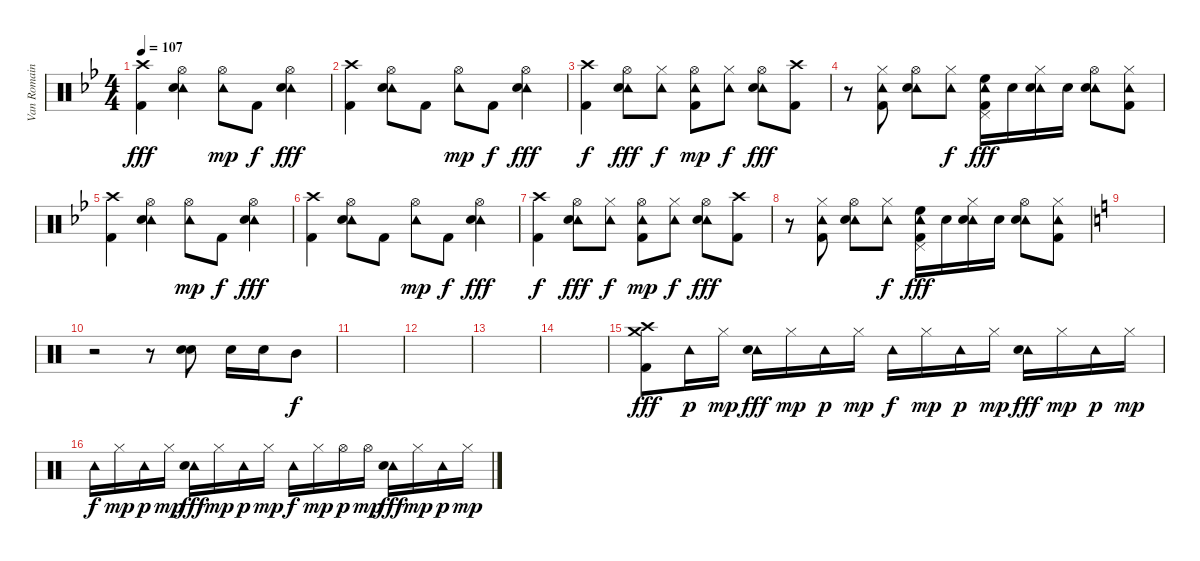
\track ("Van Romaine" "Van Romain") {instrument percussion}
\staff {score}
\articulation defaults
\ts (4 4)
\tempo 107
\clef neutral
\ks bb
("Crash high (hit)" "Kick (hit) 2").4{dy fff} ("Hi-Hat (open)" "Tambourine (hit)" "Electric Snare (hit)").4 ("Hi-Hat (open)" "Tambourine (hit)").8{dy mp} "Kick (hit) 2".8{dy f} ("Hi-Hat (open)" "Tambourine (hit)" "Electric Snare (hit)").4{dy fff} |
("Crash high (hit)" "Kick (hit) 2").4 ("Hi-Hat (open)" "Tambourine (hit)" "Electric Snare (hit)").8 "Kick (hit) 2".8 ("Hi-Hat (open)" "Tambourine (hit)").8{dy mp} "Kick (hit) 2".8{dy f} ("Hi-Hat (open)" "Tambourine (hit)" "Electric Snare (hit)").4{dy fff} |
("Crash high (hit)" "Kick (hit) 2").4{dy f} ("Hi-Hat (open)" "Tambourine (hit)" "Electric Snare (hit)").8{dy fff} ("Hi-Hat (closed)" "Tambourine (hit)").8{dy f} ("Hi-Hat (open)" "Tambourine (hit)" "Kick (hit) 2").8{dy mp} ("Hi-Hat (closed)" "Tambourine (hit)").8{dy f} ("Hi-Hat (open)" "Tambourine (hit)" "Electric Snare (hit)").8{dy fff} ("Crash high (hit)" "Kick (hit) 2").8 |
r.8 ("Hi-Hat (closed)" "Tambourine (hit)" "Kick (hit) 2").8 ("Hi-Hat (open)" "Tambourine (hit)" "Electric Snare (hit)").8 ("Hi-Hat (closed)" "Tambourine (hit)").8{dy f} ("Pedal Hi-Hat (hit)" "Tambourine (hit)" "High Floor Tom (hit)" "Kick (hit) 2").16{dy fff} "Electric Snare (hit)".16 ("Hi-Hat (closed)" "Tambourine (hit)" "Electric Snare (hit)").16 "Electric Snare (hit)".16 ("Hi-Hat (open)" "Tambourine (hit)" "Electric Snare (hit)").8 ("Hi-Hat (closed)" "Tambourine (hit)" "Kick (hit) 2").8 |
("Crash high (hit)" "Kick (hit) 2").4 ("Hi-Hat (open)" "Tambourine (hit)" "Electric Snare (hit)").4 ("Hi-Hat (open)" "Tambourine (hit)").8{dy mp} "Kick (hit) 2".8{dy f} ("Hi-Hat (open)" "Tambourine (hit)" "Electric Snare (hit)").4{dy fff} |
("Crash high (hit)" "Kick (hit) 2").4 ("Hi-Hat (open)" "Tambourine (hit)" "Electric Snare (hit)").8 "Kick (hit) 2".8 ("Hi-Hat (open)" "Tambourine (hit)").8{dy mp} "Kick (hit) 2".8{dy f} ("Hi-Hat (open)" "Tambourine (hit)" "Electric Snare (hit)").4{dy fff} |
("Crash high (hit)" "Kick (hit) 2").4{dy f} ("Hi-Hat (open)" "Tambourine (hit)" "Electric Snare (hit)").8{dy fff} ("Hi-Hat (closed)" "Tambourine (hit)").8{dy f} ("Hi-Hat (open)" "Tambourine (hit)" "Kick (hit) 2").8{dy mp} ("Hi-Hat (closed)" "Tambourine (hit)").8{dy f} ("Hi-Hat (open)" "Tambourine (hit)" "Electric Snare (hit)").8{dy fff} ("Crash high (hit)" "Kick (hit) 2").8 |
r.8 ("Hi-Hat (closed)" "Tambourine (hit)" "Kick (hit) 2").8 ("Hi-Hat (open)" "Tambourine (hit)" "Electric Snare (hit)").8 ("Hi-Hat (closed)" "Tambourine (hit)").8{dy f} ("Pedal Hi-Hat (hit)" "Tambourine (hit)" "High Floor Tom (hit)" "Kick (hit) 2").16{dy fff} "Electric Snare (hit)".16 ("Hi-Hat (closed)" "Tambourine (hit)" "Electric Snare (hit)").16 "Electric Snare (hit)".16 ("Hi-Hat (open)" "Tambourine (hit)" "Electric Snare (hit)").8 ("Hi-Hat (closed)" "Tambourine (hit)" "Kick (hit) 2").8 |
\ks c
|
r.2 r.8 ("Electric Snare (hit)" "Electric Snare (hit)").8 "Electric Snare (hit)".16 "Electric Snare (hit)".16 "Mid Tom (hit)".8{dy f} |
|
|
|
|
("Crash medium (hit)" "Crash high (hit)" "Kick (hit) 2").8{dy fff} "Tambourine (hit)".16{dy p} "Hi-Hat (closed)".16{dy mp} ("Tambourine (hit)" "Electric Snare (hit)").16{dy fff} "Hi-Hat (closed)".16{dy mp} "Tambourine (hit)".16{dy p} "Hi-Hat (closed)".16{dy mp} "Tambourine (hit)".16{dy f} "Hi-Hat (closed)".16{dy mp} "Tambourine (hit)".16{dy p} "Hi-Hat (closed)".16{dy mp} ("Tambourine (hit)" "Electric Snare (hit)").16{dy fff} "Hi-Hat (closed)".16{dy mp} "Tambourine (hit)".16{dy p} "Hi-Hat (closed)".16{dy mp} |
"Tambourine (hit)".16{dy f} "Hi-Hat (closed)".16{dy mp} "Tambourine (hit)".16{dy p} "Hi-Hat (closed)".16{dy mp} ("Tambourine (hit)" "Electric Snare (hit)").16{dy fff} "Hi-Hat (closed)".16{dy mp} "Tambourine (hit)".16{dy p} "Hi-Hat (closed)".16{dy mp} "Tambourine (hit)".16{dy f} "Hi-Hat (closed)".16{dy mp} "Hi-Hat (open)".16{dy p} "Hi-Hat (open)".16{dy mp} ("Tambourine (hit)" "Electric Snare (hit)").16{dy fff} "Hi-Hat (closed)".16{dy mp} "Tambourine (hit)".16{dy p} "Hi-Hat (closed)".16{dy mp}
